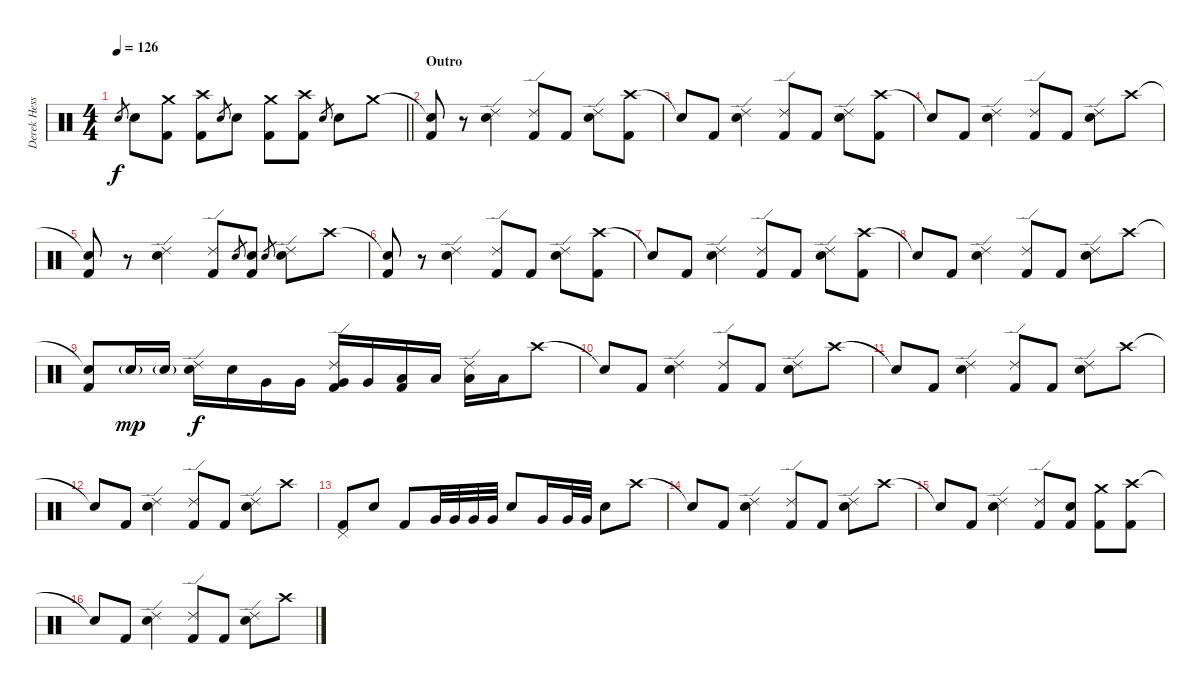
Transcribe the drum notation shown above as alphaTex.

\track ("Derek Hess (Drums and Percussion)" "Derek Hess") {instrument percussion}
\staff {score}
\articulation defaults
\ts (4 4)
\tempo 126
\clef neutral
\barLineRight lightlight
\ks c "Electric Snare (hit)".8{gr dy f} "Electric Snare (hit)".8
("Crash medium (hit)" "Kick (hit) 2").8 ("Crash high (hit)" "Kick (hit) 2").8 "Electric Snare (hit)".8{gr} "Electric Snare (hit)".8 ("Crash medium (hit)" "Kick (hit) 2").8 ("Crash high (hit)" "Kick (hit) 2").8 "Electric Snare (hit)".8{gr} "Electric Snare (hit)".8 "Crash medium (hit)".8 |
\section ("" "Outro")
("Snare (hit)"{t} "Kick (hit) 2").8 r.8 ("Ride (edge) 2" "Electric Snare (hit)").4 ("Ride (edge) 2" "Kick (hit) 2").8 "Kick (hit) 2".8 ("Ride (edge) 2" "Electric Snare (hit)").8 ("Crash high (hit)" "Kick (hit) 2").8 |
"Snare (hit)"{t}.8 "Kick (hit) 2".8 ("Ride (edge) 2" "Electric Snare (hit)").4 ("Ride (edge) 2" "Kick (hit) 2").8 "Kick (hit) 2".8 ("Ride (edge) 2" "Electric Snare (hit)").8 ("Crash high (hit)" "Kick (hit) 2").8 |
"Snare (hit)"{t}.8 "Kick (hit) 2".8 ("Ride (edge) 2" "Electric Snare (hit)").4 ("Ride (edge) 2" "Kick (hit) 2").8 "Kick (hit) 2".8 ("Ride (edge) 2" "Electric Snare (hit)").8 "Crash high (hit)".8 |
("Snare (hit)"{t} "Kick (hit) 2").8 r.8 ("Ride (edge) 2" "Electric Snare (hit)").4 ("Ride (edge) 2" "Kick (hit) 2").8 "Electric Snare (hit)".8{gr} ("Electric Snare (hit)" "Kick (hit) 2").8 "Electric Snare (hit)".8{gr} ("Ride (edge) 2" "Electric Snare (hit)").8 "Crash high (hit)".8 |
("Snare (hit)"{t} "Kick (hit) 2").8 r.8 ("Ride (edge) 2" "Electric Snare (hit)").4 ("Ride (edge) 2" "Kick (hit) 2").8 "Kick (hit) 2".8 ("Ride (edge) 2" "Electric Snare (hit)").8 ("Crash high (hit)" "Kick (hit) 2").8 |
"Snare (hit)"{t}.8 "Kick (hit) 2".8 ("Ride (edge) 2" "Electric Snare (hit)").4 ("Ride (edge) 2" "Kick (hit) 2").8 "Kick (hit) 2".8 ("Ride (edge) 2" "Electric Snare (hit)").8 ("Crash high (hit)" "Kick (hit) 2").8 |
"Snare (hit)"{t}.8 "Kick (hit) 2".8 ("Ride (edge) 2" "Electric Snare (hit)").4 ("Ride (edge) 2" "Kick (hit) 2").8 "Kick (hit) 2".8 ("Ride (edge) 2" "Electric Snare (hit)").8 "Crash high (hit)".8 |
("Snare (hit)"{t} "Kick (hit) 2").8 "Electric Snare (hit)"{g}.16{dy mp} "Electric Snare (hit)"{g}.16 ("Ride (edge) 2" "Electric Snare (hit)").16{dy f} "Electric Snare (hit)".16 "Very Low Tom (hit)".16 "Very Low Tom (hit)".16 ("Ride (edge) 2" "Very Low Tom (hit)" "Kick (hit) 2").16 "Very Low Tom (hit)".16 ("Low Tom (hit)" "Kick (hit) 2").16 "Low Tom (hit)".16 ("Ride (edge) 2" "Low Tom (hit)").16 "Low Tom (hit)".16 "Crash high (hit)".8 |
"Snare (hit)"{t}.8 "Kick (hit) 2".8 ("Ride (edge) 2" "Electric Snare (hit)").4 ("Ride (edge) 2" "Kick (hit) 2").8 "Kick (hit) 2".8 ("Ride (edge) 2" "Electric Snare (hit)").8 "Crash high (hit)".8 |
"Snare (hit)"{t}.8 "Kick (hit) 2".8 ("Ride (edge) 2" "Electric Snare (hit)").4 ("Ride (edge) 2" "Kick (hit) 2").8 "Kick (hit) 2".8 ("Ride (edge) 2" "Electric Snare (hit)").8 "Crash high (hit)".8 |
"Snare (hit)"{t}.8 "Kick (hit) 2".8 ("Ride (edge) 2" "Electric Snare (hit)").4 ("Ride (edge) 2" "Kick (hit) 2").8 "Kick (hit) 2".8 ("Ride (edge) 2" "Electric Snare (hit)").8 "Crash high (hit)".8 |
("Pedal Hi-Hat (hit)" "Kick (hit) 2").8 "Electric Snare (hit)".8 "Kick (hit) 2".8 "Very Low Tom (hit)".32 "Very Low Tom (hit)".32 "Very Low Tom (hit)".32 "Very Low Tom (hit)".32 "Electric Snare (hit)".8 "Very Low Tom (hit)".16 "Very Low Tom (hit)".32 "Very Low Tom (hit)".32 "Electric Snare (hit)".8 "Crash high (hit)".8 |
"Snare (hit)"{t}.8 "Kick (hit) 2".8 ("Ride (edge) 2" "Electric Snare (hit)").4 ("Ride (edge) 2" "Kick (hit) 2").8 "Kick (hit) 2".8 ("Ride (edge) 2" "Electric Snare (hit)").8 "Crash high (hit)".8 |
"Snare (hit)"{t}.8 "Kick (hit) 2".8 ("Ride (edge) 2" "Electric Snare (hit)").4 ("Ride (edge) 2" "Kick (hit) 2").8 ("Electric Snare (hit)" "Kick (hit) 2").8 ("Crash medium (hit)" "Kick (hit) 2").8 ("Crash high (hit)" "Kick (hit) 2").8 |
"Snare (hit)"{t}.8 "Kick (hit) 2".8 ("Ride (edge) 2" "Electric Snare (hit)").4 ("Ride (edge) 2" "Kick (hit) 2").8 "Kick (hit) 2".8 ("Ride (edge) 2" "Electric Snare (hit)").8 "Crash high (hit)".8
